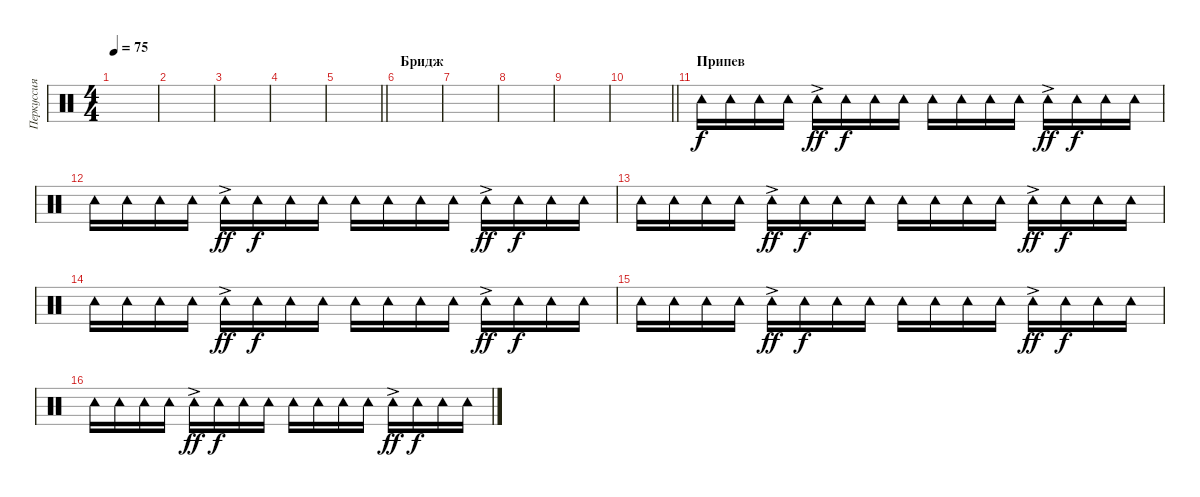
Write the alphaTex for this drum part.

\track ("Перкуссия" "Перкуссия") {instrument percussion}
\staff {score}
\articulation defaults
\ts (4 4)
\tempo 75
\clef neutral
\ks c
|
|
|
|
\barLineRight lightlight
|
\section ("" "Бридж")
|
|
|
|
\barLineRight lightlight
|
\section ("" "Припев")
"Tambourine (hit)".16{volume 5} "Tambourine (hit)".16 "Tambourine (hit)".16 "Tambourine (hit)".16 "Tambourine (hit)"{ac}.16{dy ff} "Tambourine (hit)".16{dy f} "Tambourine (hit)".16 "Tambourine (hit)".16 "Tambourine (hit)".16 "Tambourine (hit)".16 "Tambourine (hit)".16 "Tambourine (hit)".16 "Tambourine (hit)"{ac}.16{dy ff} "Tambourine (hit)".16{dy f} "Tambourine (hit)".16 "Tambourine (hit)".16 |
"Tambourine (hit)".16 "Tambourine (hit)".16 "Tambourine (hit)".16 "Tambourine (hit)".16 "Tambourine (hit)"{ac}.16{dy ff} "Tambourine (hit)".16{dy f} "Tambourine (hit)".16 "Tambourine (hit)".16 "Tambourine (hit)".16 "Tambourine (hit)".16 "Tambourine (hit)".16 "Tambourine (hit)".16 "Tambourine (hit)"{ac}.16{dy ff} "Tambourine (hit)".16{dy f} "Tambourine (hit)".16 "Tambourine (hit)".16 |
"Tambourine (hit)".16 "Tambourine (hit)".16 "Tambourine (hit)".16 "Tambourine (hit)".16 "Tambourine (hit)"{ac}.16{dy ff} "Tambourine (hit)".16{dy f} "Tambourine (hit)".16 "Tambourine (hit)".16 "Tambourine (hit)".16 "Tambourine (hit)".16 "Tambourine (hit)".16 "Tambourine (hit)".16 "Tambourine (hit)"{ac}.16{dy ff} "Tambourine (hit)".16{dy f} "Tambourine (hit)".16 "Tambourine (hit)".16 |
"Tambourine (hit)".16 "Tambourine (hit)".16 "Tambourine (hit)".16 "Tambourine (hit)".16 "Tambourine (hit)"{ac}.16{dy ff} "Tambourine (hit)".16{dy f} "Tambourine (hit)".16 "Tambourine (hit)".16 "Tambourine (hit)".16 "Tambourine (hit)".16 "Tambourine (hit)".16 "Tambourine (hit)".16 "Tambourine (hit)"{ac}.16{dy ff} "Tambourine (hit)".16{dy f} "Tambourine (hit)".16 "Tambourine (hit)".16 |
"Tambourine (hit)".16 "Tambourine (hit)".16 "Tambourine (hit)".16 "Tambourine (hit)".16 "Tambourine (hit)"{ac}.16{dy ff} "Tambourine (hit)".16{dy f} "Tambourine (hit)".16 "Tambourine (hit)".16 "Tambourine (hit)".16 "Tambourine (hit)".16 "Tambourine (hit)".16 "Tambourine (hit)".16 "Tambourine (hit)"{ac}.16{dy ff} "Tambourine (hit)".16{dy f} "Tambourine (hit)".16 "Tambourine (hit)".16 |
"Tambourine (hit)".16 "Tambourine (hit)".16 "Tambourine (hit)".16 "Tambourine (hit)".16 "Tambourine (hit)"{ac}.16{dy ff} "Tambourine (hit)".16{dy f} "Tambourine (hit)".16 "Tambourine (hit)".16 "Tambourine (hit)".16 "Tambourine (hit)".16 "Tambourine (hit)".16 "Tambourine (hit)".16 "Tambourine (hit)"{ac}.16{dy ff} "Tambourine (hit)".16{dy f} "Tambourine (hit)".16 "Tambourine (hit)".16
